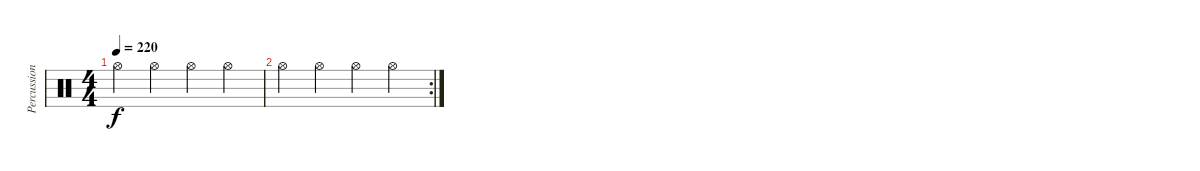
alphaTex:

\track ("Percussion" "Percussion") {instrument percussion}
\staff {score}
\articulation defaults
\ts (4 4)
\tempo 220
\clef neutral
\ks c "Hi-Hat (open)".4{dy f} "Hi-Hat (open)".4 "Hi-Hat (open)".4 "Hi-Hat (open)".4
|
\rc 2 "Hi-Hat (open)".4 "Hi-Hat (open)".4 "Hi-Hat (open)".4 "Hi-Hat (open)".4
